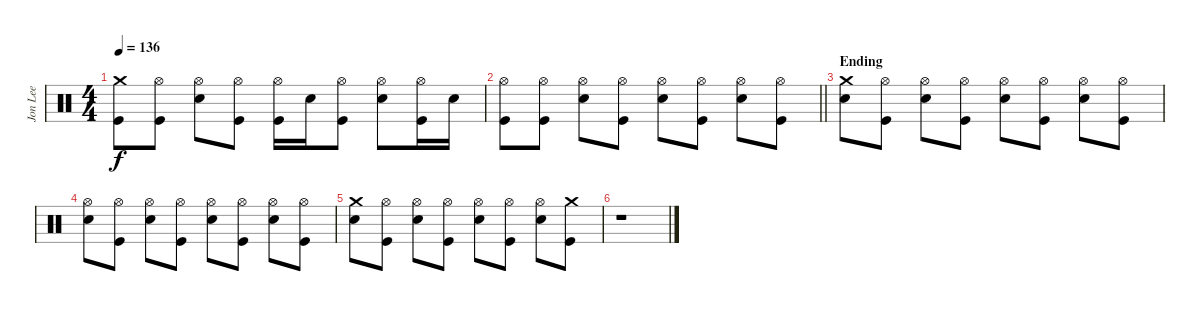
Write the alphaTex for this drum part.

\track ("Jon Lee" "Jon Lee") {instrument percussion}
\staff {score}
\articulation defaults
\ts (4 4)
\tempo 136
\clef neutral
\ks c
("Crash medium (hit)" "Kick (hit)").8{dy f} ("Hi-Hat (open)" "Kick (hit)").8 ("Hi-Hat (open)" "Electric Snare (hit)").8 ("Hi-Hat (open)" "Kick (hit)").8 ("Hi-Hat (open)" "Kick (hit)").16 "Electric Snare (hit)".16 ("Hi-Hat (open)" "Kick (hit)").8 ("Hi-Hat (open)" "Electric Snare (hit)").8 ("Hi-Hat (open)" "Kick (hit)").16 "Electric Snare (hit)".16 |
\barLineRight lightlight
("Hi-Hat (open)" "Kick (hit)").8 ("Hi-Hat (open)" "Kick (hit)").8 ("Hi-Hat (open)" "Electric Snare (hit)").8 ("Hi-Hat (open)" "Kick (hit)").8 ("Hi-Hat (open)" "Electric Snare (hit)").8 ("Hi-Hat (open)" "Kick (hit)").8 ("Hi-Hat (open)" "Electric Snare (hit)").8 ("Hi-Hat (open)" "Kick (hit)").8 |
\section ("" "Ending")
("Crash medium (hit)" "Electric Snare (hit)").8 ("Hi-Hat (open)" "Kick (hit)").8 ("Hi-Hat (open)" "Electric Snare (hit)").8 ("Hi-Hat (open)" "Kick (hit)").8 ("Hi-Hat (open)" "Electric Snare (hit)").8 ("Hi-Hat (open)" "Kick (hit)").8 ("Hi-Hat (open)" "Electric Snare (hit)").8 ("Hi-Hat (open)" "Kick (hit)").8 |
("Hi-Hat (open)" "Electric Snare (hit)").8 ("Hi-Hat (open)" "Kick (hit)").8 ("Hi-Hat (open)" "Electric Snare (hit)").8 ("Hi-Hat (open)" "Kick (hit)").8 ("Hi-Hat (open)" "Electric Snare (hit)").8 ("Hi-Hat (open)" "Kick (hit)").8 ("Hi-Hat (open)" "Electric Snare (hit)").8 ("Hi-Hat (open)" "Kick (hit)").8 |
("Crash medium (hit)" "Electric Snare (hit)").8 ("Hi-Hat (open)" "Kick (hit)").8 ("Hi-Hat (open)" "Electric Snare (hit)").8 ("Hi-Hat (open)" "Kick (hit)").8 ("Hi-Hat (open)" "Electric Snare (hit)").8 ("Hi-Hat (open)" "Kick (hit)").8 ("Hi-Hat (open)" "Electric Snare (hit)").8 ("Crash medium (hit)" "Kick (hit)").8 |
r.1
